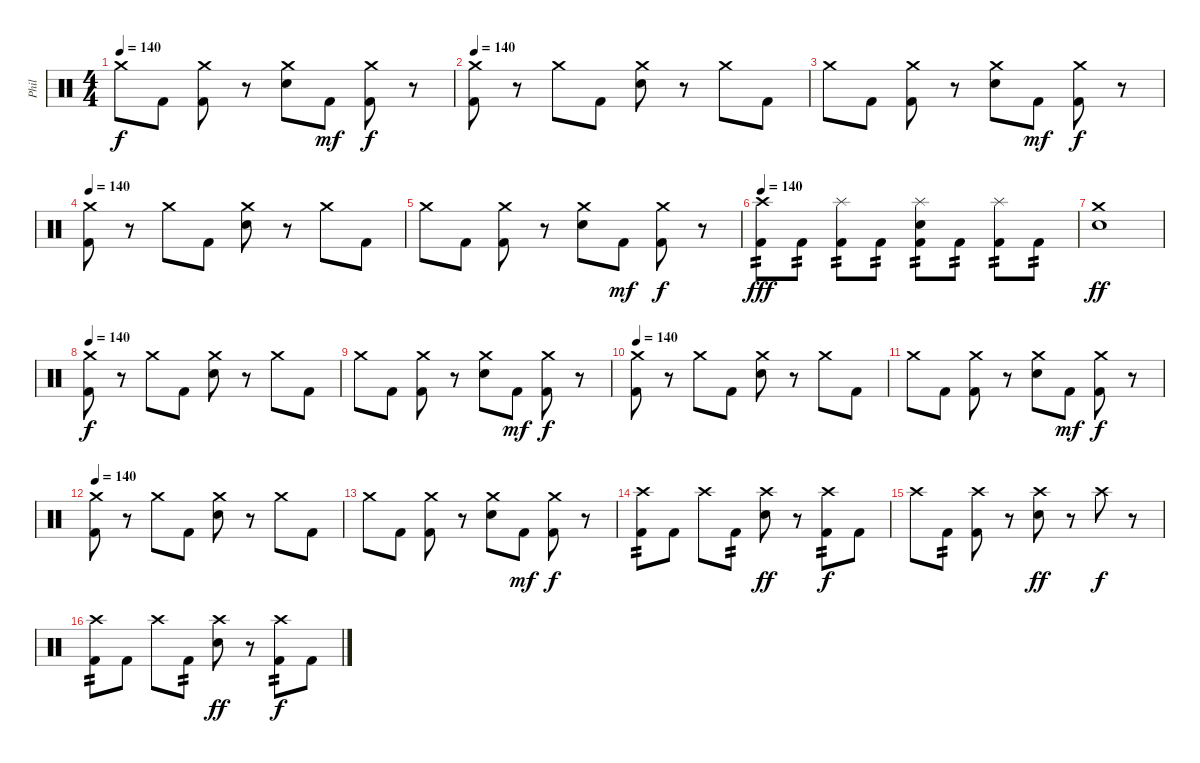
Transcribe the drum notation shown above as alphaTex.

\track ("Phil" "Phil") {instrument percussion}
\staff {score}
\articulation defaults
\ts (4 4)
\tempo 140
\clef neutral
\ks c "Crash medium (hit)".8{dy f} "Kick (hit) 2".8
("Crash medium (hit)" "Kick (hit) 2").8 r.8 ("Crash medium (hit)" "Snare (hit) 2").8 "Kick (hit) 2".8{dy mf} ("Crash medium (hit)" "Kick (hit) 2").8{dy f} r.8 |
\tempo 140
("Crash medium (hit)" "Kick (hit) 2").8 r.8 "Crash medium (hit)".8 "Kick (hit) 2".8 ("Crash medium (hit)" "Snare (hit) 2").8 r.8 "Crash medium (hit)".8 "Kick (hit) 2".8 |
"Crash medium (hit)".8 "Kick (hit) 2".8 ("Crash medium (hit)" "Kick (hit) 2").8 r.8 ("Crash medium (hit)" "Snare (hit) 2").8 "Kick (hit) 2".8{dy mf} ("Crash medium (hit)" "Kick (hit) 2").8{dy f} r.8 |
\tempo 140
("Crash medium (hit)" "Kick (hit) 2").8 r.8 "Crash medium (hit)".8 "Kick (hit) 2".8 ("Crash medium (hit)" "Snare (hit) 2").8 r.8 "Crash medium (hit)".8 "Kick (hit) 2".8 |
"Crash medium (hit)".8 "Kick (hit) 2".8 ("Crash medium (hit)" "Kick (hit) 2").8 r.8 ("Crash medium (hit)" "Snare (hit) 2").8 "Kick (hit) 2".8{dy mf} ("Crash medium (hit)" "Kick (hit) 2").8{dy f} r.8 |
\tempo 140
("Crash high (hit)" "Kick (hit) 2").8{tp 2 dy fff} "Kick (hit) 2".8{tp 2} ("Splash (hit)" "Kick (hit) 2").8{tp 2} "Kick (hit) 2".8{tp 2} ("Splash (hit)" "Snare (hit) 2" "Kick (hit) 2").8{tp 2} "Kick (hit) 2".8{tp 2} ("Splash (hit)" "Kick (hit) 2").8{tp 2} "Kick (hit) 2".8{tp 2} |
("Crash medium (hit)" "Snare (hit) 2").1{dy ff} |
\tempo 140
("Crash medium (hit)" "Kick (hit) 2").8{dy f} r.8 "Crash medium (hit)".8 "Kick (hit) 2".8 ("Crash medium (hit)" "Snare (hit) 2").8 r.8 "Crash medium (hit)".8 "Kick (hit) 2".8 |
"Crash medium (hit)".8 "Kick (hit) 2".8 ("Crash medium (hit)" "Kick (hit) 2").8 r.8 ("Crash medium (hit)" "Snare (hit) 2").8 "Kick (hit) 2".8{dy mf} ("Crash medium (hit)" "Kick (hit) 2").8{dy f} r.8 |
\tempo 140
("Crash medium (hit)" "Kick (hit) 2").8 r.8 "Crash medium (hit)".8 "Kick (hit) 2".8 ("Crash medium (hit)" "Snare (hit) 2").8 r.8 "Crash medium (hit)".8 "Kick (hit) 2".8 |
"Crash medium (hit)".8 "Kick (hit) 2".8 ("Crash medium (hit)" "Kick (hit) 2").8 r.8 ("Crash medium (hit)" "Snare (hit) 2").8 "Kick (hit) 2".8{dy mf} ("Crash medium (hit)" "Kick (hit) 2").8{dy f} r.8 |
\tempo 140
("Crash medium (hit)" "Kick (hit) 2").8 r.8 "Crash medium (hit)".8 "Kick (hit) 2".8 ("Crash medium (hit)" "Snare (hit) 2").8 r.8 "Crash medium (hit)".8 "Kick (hit) 2".8 |
"Crash medium (hit)".8 "Kick (hit) 2".8 ("Crash medium (hit)" "Kick (hit) 2").8 r.8 ("Crash medium (hit)" "Snare (hit) 2").8 "Kick (hit) 2".8{dy mf} ("Crash medium (hit)" "Kick (hit) 2").8{dy f} r.8 |
("Crash high (hit)" "Kick (hit) 2").8{tp 2} "Kick (hit) 2".8 "Crash high (hit)".8 "Kick (hit) 2".8{tp 2} ("Crash high (hit)" "Electric Snare (hit)").8{dy ff} r.8 ("Crash high (hit)" "Kick (hit) 2").8{tp 2 dy f} "Kick (hit) 2".8 |
"Crash high (hit)".8 "Kick (hit) 2".8{tp 2} ("Crash high (hit)" "Kick (hit) 2").8 r.8 ("Crash high (hit)" "Electric Snare (hit)").8{dy ff} r.8 "Crash high (hit)".8{dy f} r.8 |
("Crash high (hit)" "Kick (hit) 2").8{tp 2} "Kick (hit) 2".8 "Crash high (hit)".8 "Kick (hit) 2".8{tp 2} ("Crash high (hit)" "Electric Snare (hit)").8{dy ff} r.8 ("Crash high (hit)" "Kick (hit) 2").8{tp 2 dy f} "Kick (hit) 2".8
